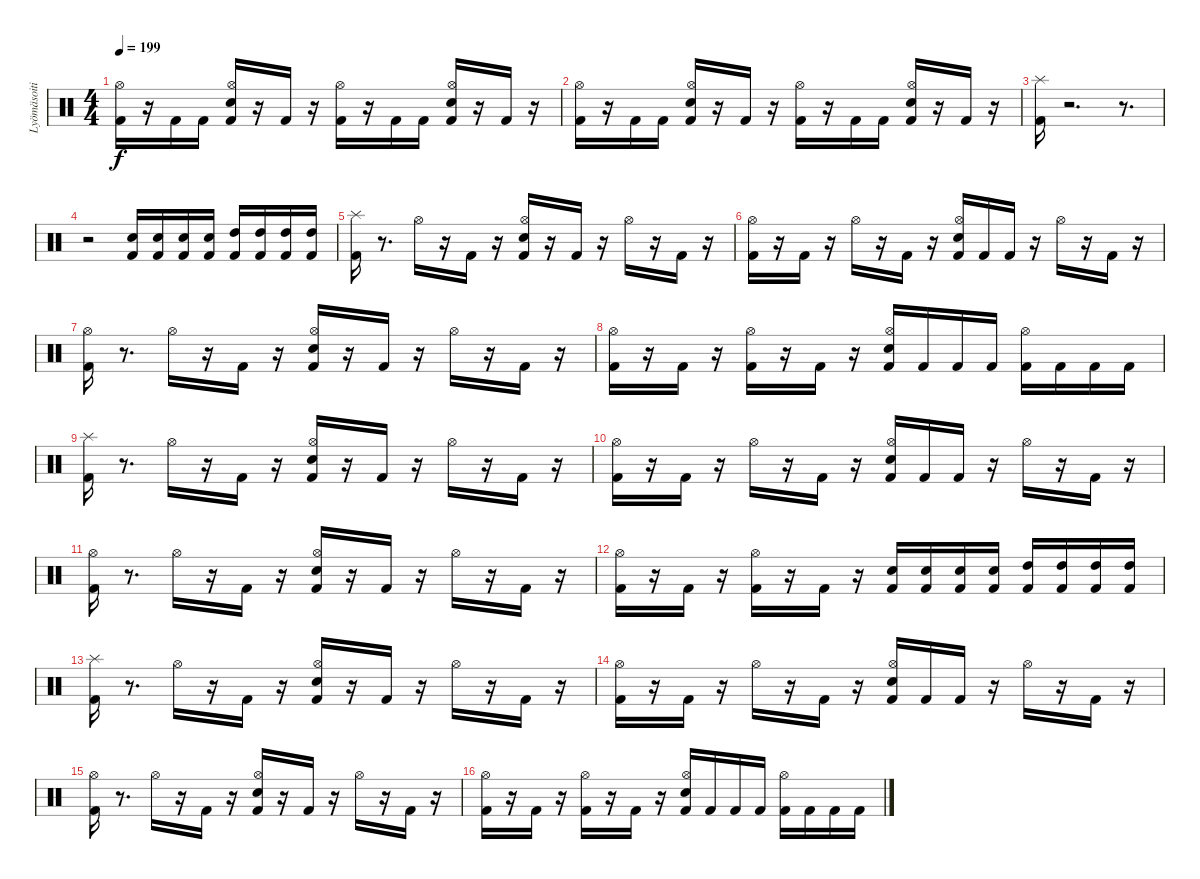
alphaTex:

\track ("Lyömäsoitin" "Lyömäsoiti") {instrument percussion}
\staff {score}
\articulation defaults
\ts (4 4)
\tempo 199
\clef neutral
\ks c
("Kick (hit) 2" "Hi-Hat (open)").16{dy f} r.16 "Kick (hit) 2".16 "Kick (hit) 2".16 ("Kick (hit) 2" "Hi-Hat (open)" "Snare (hit) 2").16 r.16 "Kick (hit) 2".16 r.16 ("Kick (hit) 2" "Hi-Hat (open)").16 r.16 "Kick (hit) 2".16 "Kick (hit) 2".16 ("Kick (hit) 2" "Hi-Hat (open)" "Snare (hit) 2").16 r.16 "Kick (hit) 2".16 r.16 |
("Kick (hit) 2" "Hi-Hat (open)").16 r.16 "Kick (hit) 2".16 "Kick (hit) 2".16 ("Kick (hit) 2" "Hi-Hat (open)" "Snare (hit) 2").16 r.16 "Kick (hit) 2".16 r.16 ("Kick (hit) 2" "Hi-Hat (open)").16 r.16 "Kick (hit) 2".16 "Kick (hit) 2".16 ("Kick (hit) 2" "Hi-Hat (open)" "Snare (hit) 2").16 r.16 "Kick (hit) 2".16 r.16 |
("Kick (hit) 2" "Splash (hit)").16 r.2{d} r.8{d} |
r.2 ("Kick (hit) 2" "Snare (hit) 2").16 ("Kick (hit) 2" "Snare (hit) 2").16 ("Kick (hit) 2" "Snare (hit) 2").16 ("Kick (hit) 2" "Snare (hit) 2").16 ("Kick (hit) 2" "High Tom (hit)").16 ("Kick (hit) 2" "High Tom (hit)").16 ("Kick (hit) 2" "High Tom (hit)").16 ("Kick (hit) 2" "High Tom (hit)").16 |
("Kick (hit) 2" "Splash (hit)").16 r.8{d} "Hi-Hat (open)".16 r.16 "Kick (hit) 2".16 r.16 ("Kick (hit) 2" "Hi-Hat (open)" "Snare (hit) 2").16 r.16 "Kick (hit) 2".16 r.16 "Hi-Hat (open)".16 r.16 "Kick (hit) 2".16 r.16 |
("Kick (hit) 2" "Hi-Hat (open)").16 r.16 "Kick (hit) 2".16 r.16 "Hi-Hat (open)".16 r.16 "Kick (hit) 2".16 r.16 ("Kick (hit) 2" "Hi-Hat (open)" "Snare (hit) 2").16 "Kick (hit) 2".16 "Kick (hit) 2".16 r.16 "Hi-Hat (open)".16 r.16 "Kick (hit) 2".16 r.16 |
("Kick (hit) 2" "Hi-Hat (open)").16 r.8{d} "Hi-Hat (open)".16 r.16 "Kick (hit) 2".16 r.16 ("Kick (hit) 2" "Hi-Hat (open)" "Snare (hit) 2").16 r.16 "Kick (hit) 2".16 r.16 "Hi-Hat (open)".16 r.16 "Kick (hit) 2".16 r.16 |
("Kick (hit) 2" "Hi-Hat (open)").16 r.16 "Kick (hit) 2".16 r.16 ("Kick (hit) 2" "Hi-Hat (open)").16 r.16 "Kick (hit) 2".16 r.16 ("Kick (hit) 2" "Hi-Hat (open)" "Snare (hit) 2").16 "Kick (hit) 2".16 "Kick (hit) 2".16 "Kick (hit) 2".16 ("Kick (hit) 2" "Hi-Hat (open)").16 "Kick (hit) 2".16 "Kick (hit) 2".16 "Kick (hit) 2".16 |
("Kick (hit) 2" "Splash (hit)").16 r.8{d} "Hi-Hat (open)".16 r.16 "Kick (hit) 2".16 r.16 ("Kick (hit) 2" "Hi-Hat (open)" "Snare (hit) 2").16 r.16 "Kick (hit) 2".16 r.16 "Hi-Hat (open)".16 r.16 "Kick (hit) 2".16 r.16 |
("Kick (hit) 2" "Hi-Hat (open)").16 r.16 "Kick (hit) 2".16 r.16 "Hi-Hat (open)".16 r.16 "Kick (hit) 2".16 r.16 ("Kick (hit) 2" "Hi-Hat (open)" "Snare (hit) 2").16 "Kick (hit) 2".16 "Kick (hit) 2".16 r.16 "Hi-Hat (open)".16 r.16 "Kick (hit) 2".16 r.16 |
("Kick (hit) 2" "Hi-Hat (open)").16 r.8{d} "Hi-Hat (open)".16 r.16 "Kick (hit) 2".16 r.16 ("Kick (hit) 2" "Hi-Hat (open)" "Snare (hit) 2").16 r.16 "Kick (hit) 2".16 r.16 "Hi-Hat (open)".16 r.16 "Kick (hit) 2".16 r.16 |
("Kick (hit) 2" "Hi-Hat (open)").16 r.16 "Kick (hit) 2".16 r.16 ("Kick (hit) 2" "Hi-Hat (open)").16 r.16 "Kick (hit) 2".16 r.16 ("Kick (hit) 2" "Snare (hit) 2").16 ("Kick (hit) 2" "Snare (hit) 2").16 ("Kick (hit) 2" "Snare (hit) 2").16 ("Kick (hit) 2" "Snare (hit) 2").16 ("Kick (hit) 2" "High Tom (hit)").16 ("Kick (hit) 2" "High Tom (hit)").16 ("Kick (hit) 2" "High Tom (hit)").16 ("Kick (hit) 2" "High Tom (hit)").16 |
("Kick (hit) 2" "Splash (hit)").16 r.8{d} "Hi-Hat (open)".16 r.16 "Kick (hit) 2".16 r.16 ("Kick (hit) 2" "Hi-Hat (open)" "Snare (hit) 2").16 r.16 "Kick (hit) 2".16 r.16 "Hi-Hat (open)".16 r.16 "Kick (hit) 2".16 r.16 |
("Kick (hit) 2" "Hi-Hat (open)").16 r.16 "Kick (hit) 2".16 r.16 "Hi-Hat (open)".16 r.16 "Kick (hit) 2".16 r.16 ("Kick (hit) 2" "Hi-Hat (open)" "Snare (hit) 2").16 "Kick (hit) 2".16 "Kick (hit) 2".16 r.16 "Hi-Hat (open)".16 r.16 "Kick (hit) 2".16 r.16 |
("Kick (hit) 2" "Hi-Hat (open)").16 r.8{d} "Hi-Hat (open)".16 r.16 "Kick (hit) 2".16 r.16 ("Kick (hit) 2" "Hi-Hat (open)" "Snare (hit) 2").16 r.16 "Kick (hit) 2".16 r.16 "Hi-Hat (open)".16 r.16 "Kick (hit) 2".16 r.16 |
("Kick (hit) 2" "Hi-Hat (open)").16 r.16 "Kick (hit) 2".16 r.16 ("Kick (hit) 2" "Hi-Hat (open)").16 r.16 "Kick (hit) 2".16 r.16 ("Kick (hit) 2" "Hi-Hat (open)" "Snare (hit) 2").16 "Kick (hit) 2".16 "Kick (hit) 2".16 "Kick (hit) 2".16 ("Kick (hit) 2" "Hi-Hat (open)").16 "Kick (hit) 2".16 "Kick (hit) 2".16 "Kick (hit) 2".16
